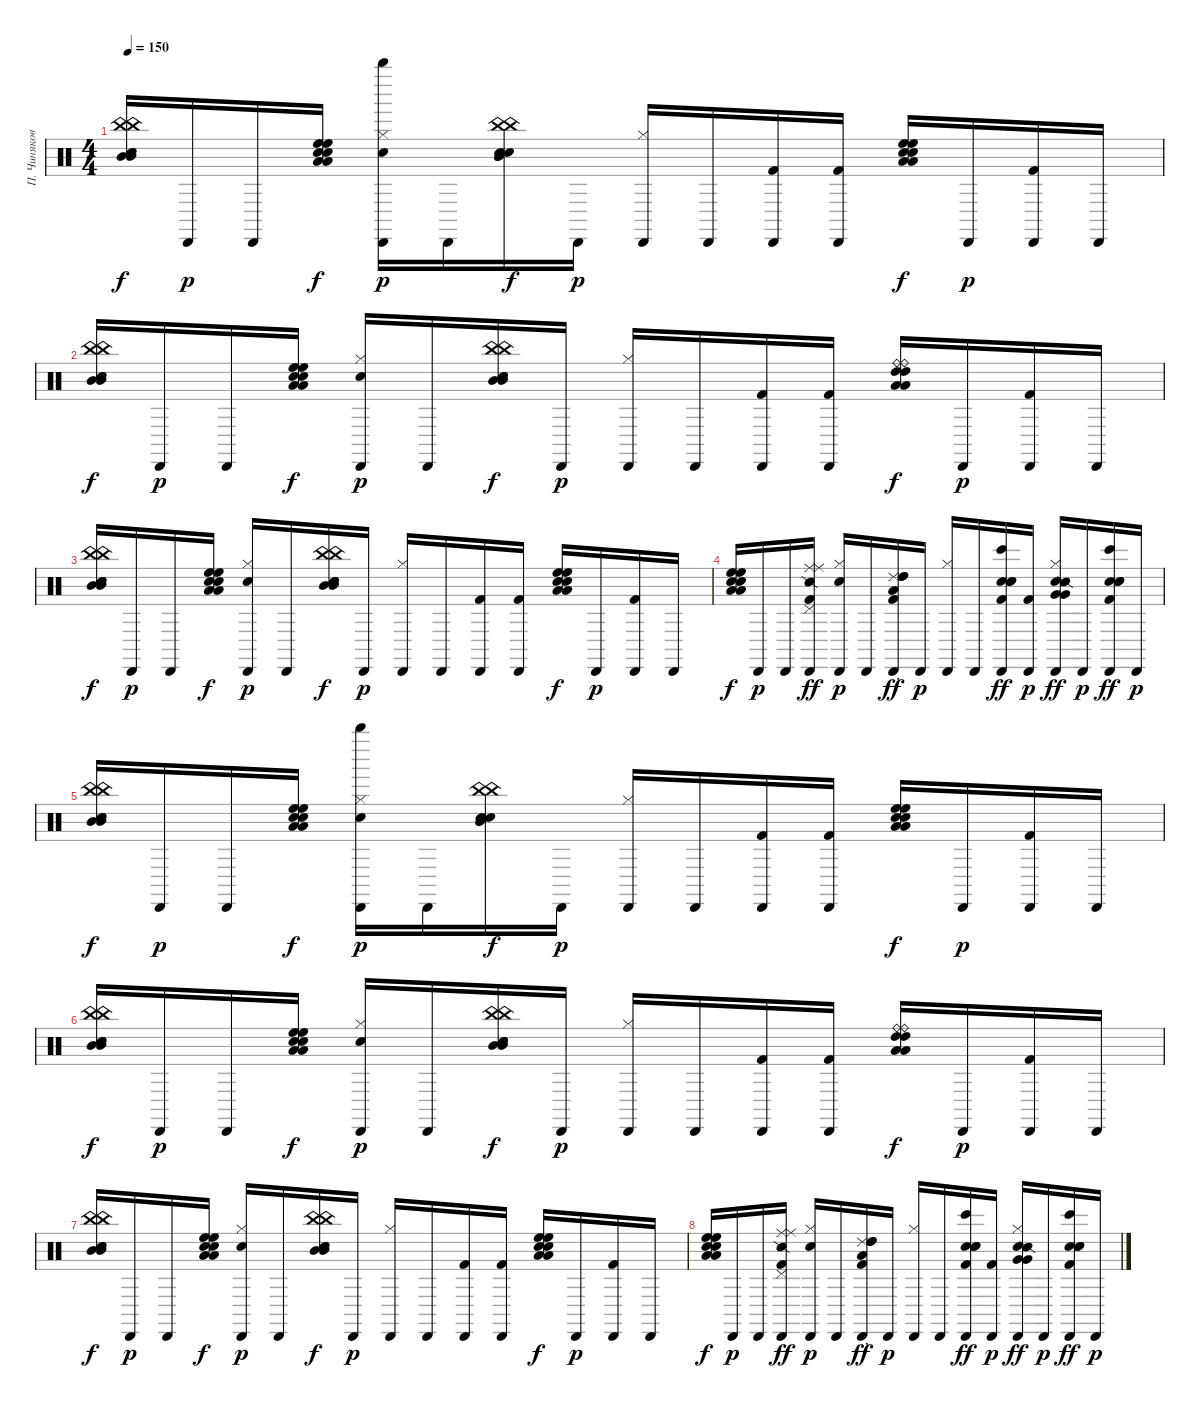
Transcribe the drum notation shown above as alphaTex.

\track ("П. Чиняков" "П. Чиняков") {instrument percussion}
\staff {score}
\articulation defaults
\ts (4 4)
\tempo 150
\clef neutral
\ks c
("China (hit)" "Mid Tom (hit)" "Electric Snare (hit)" "China (hit)" "Mid Tom (hit)" "Electric Snare (hit)").16{dy f} "Cabasa (hit)".16{dy p} "Cabasa (hit)".16 ("High Floor Tom (hit)" "Low Tom (hit)" "Snare (hit) 2" "High Floor Tom (hit)" "Low Tom (hit)" "Snare (hit) 2").16{dy f} ("Hi-Hat (closed)" "Cabasa (hit)" "Snare (hit) 2" "Whistle high (hit)").16{dy p} "Cabasa (hit)".16 ("China (hit)" "Mid Tom (hit)" "Electric Snare (hit)" "China (hit)" "Mid Tom (hit)" "Electric Snare (hit)").16{dy f} "Cabasa (hit)".16{dy p} ("Hi-Hat (closed)" "Cabasa (hit)").16 "Cabasa (hit)".16 ("Cabasa (hit)" "Kick (hit) 2").16 ("Cabasa (hit)" "Kick (hit) 2").16 ("High Floor Tom (hit)" "Low Tom (hit)" "Snare (hit) 2" "High Floor Tom (hit)" "Low Tom (hit)" "Snare (hit) 2").16{dy f} "Cabasa (hit)".16{dy p} ("Cabasa (hit)" "Kick (hit) 2").16 "Cabasa (hit)".16 |
("China (hit)" "Mid Tom (hit)" "Electric Snare (hit)" "China (hit)" "Mid Tom (hit)" "Electric Snare (hit)").16{dy f} "Cabasa (hit)".16{dy p} "Cabasa (hit)".16 ("High Floor Tom (hit)" "Low Tom (hit)" "Snare (hit) 2" "High Floor Tom (hit)" "Low Tom (hit)" "Snare (hit) 2").16{dy f} ("Hi-Hat (closed)" "Cabasa (hit)" "Snare (hit) 2").16{dy p} "Cabasa (hit)".16 ("China (hit)" "Mid Tom (hit)" "Electric Snare (hit)" "China (hit)" "Mid Tom (hit)" "Electric Snare (hit)").16{dy f} "Cabasa (hit)".16{dy p} ("Hi-Hat (closed)" "Cabasa (hit)").16 "Cabasa (hit)".16 ("Cabasa (hit)" "Kick (hit) 2").16 ("Cabasa (hit)" "Kick (hit) 2").16 ("Ride (bell)" "High Tom (hit)" "Low Floor Tom (hit)" "Ride (bell)" "High Tom (hit)" "Low Floor Tom (hit)").16{dy f} "Cabasa (hit)".16{dy p} ("Cabasa (hit)" "Kick (hit) 2").16 "Cabasa (hit)".16 |
("China (hit)" "Mid Tom (hit)" "Electric Snare (hit)" "China (hit)" "Mid Tom (hit)" "Electric Snare (hit)").16{dy f} "Cabasa (hit)".16{dy p} "Cabasa (hit)".16 ("High Floor Tom (hit)" "Low Tom (hit)" "Snare (hit) 2" "High Floor Tom (hit)" "Low Tom (hit)" "Snare (hit) 2").16{dy f} ("Hi-Hat (closed)" "Cabasa (hit)" "Snare (hit) 2").16{dy p} "Cabasa (hit)".16 ("China (hit)" "Mid Tom (hit)" "Electric Snare (hit)" "China (hit)" "Mid Tom (hit)" "Electric Snare (hit)").16{dy f} "Cabasa (hit)".16{dy p} ("Hi-Hat (closed)" "Cabasa (hit)").16 "Cabasa (hit)".16 ("Cabasa (hit)" "Kick (hit) 2").16 ("Cabasa (hit)" "Kick (hit) 2").16 ("High Floor Tom (hit)" "Low Tom (hit)" "Snare (hit) 2" "High Floor Tom (hit)" "Low Tom (hit)" "Snare (hit) 2").16{dy f} "Cabasa (hit)".16{dy p} ("Cabasa (hit)" "Kick (hit) 2").16 "Cabasa (hit)".16 |
("High Floor Tom (hit)" "Low Tom (hit)" "Snare (hit) 2" "High Floor Tom (hit)" "Low Tom (hit)" "Snare (hit) 2").16{dy f} "Cabasa (hit)".16{dy p} "Cabasa (hit)".16 ("Cabasa (hit)" "Kick (hit) 2" "Snare (side stick) 2" "Ride (middle)" "Pedal Hi-Hat (hit)" "Ride (middle)").16{dy ff} ("Hi-Hat (closed)" "Cabasa (hit)" "Snare (hit) 2").16{dy p} "Cabasa (hit)".16 ("Cabasa (hit)" "Kick (hit) 2" "Ride (choke) 2" "High Tom (hit)" "Low Floor Tom (hit)" "High Tom (hit)").16{dy ff} "Cabasa (hit)".16{dy p} ("Hi-Hat (closed)" "Cabasa (hit)").16 "Cabasa (hit)".16 ("Electric Snare (hit)" "Electric Snare (hit)" "Cabasa (hit)" "Kick (hit) 2" "Bongo High (hit)" "Electric Snare (hit)").16{dy ff} ("Cabasa (hit)" "Kick (hit) 2").16{dy p} ("Very Low Tom (hit)" "Very Low Tom (hit)" "Hi-Hat (closed)" "Cabasa (hit)" "Snare (hit) 2" "Snare (side stick) 2").16{dy ff} "Cabasa (hit)".16{dy p} ("Electric Snare (hit)" "Electric Snare (hit)" "Cabasa (hit)" "Kick (hit) 2" "Bongo High (hit)" "Electric Snare (hit)").16{dy ff} "Cabasa (hit)".16{dy p} |
("China (hit)" "Mid Tom (hit)" "Electric Snare (hit)" "China (hit)" "Mid Tom (hit)" "Electric Snare (hit)").16{dy f} "Cabasa (hit)".16{dy p} "Cabasa (hit)".16 ("High Floor Tom (hit)" "Low Tom (hit)" "Snare (hit) 2" "High Floor Tom (hit)" "Low Tom (hit)" "Snare (hit) 2").16{dy f} ("Hi-Hat (closed)" "Cabasa (hit)" "Snare (hit) 2" "Whistle high (hit)").16{dy p} "Cabasa (hit)".16 ("China (hit)" "Mid Tom (hit)" "Electric Snare (hit)" "China (hit)" "Mid Tom (hit)" "Electric Snare (hit)").16{dy f} "Cabasa (hit)".16{dy p} ("Hi-Hat (closed)" "Cabasa (hit)").16 "Cabasa (hit)".16 ("Cabasa (hit)" "Kick (hit) 2").16 ("Cabasa (hit)" "Kick (hit) 2").16 ("High Floor Tom (hit)" "Low Tom (hit)" "Snare (hit) 2" "High Floor Tom (hit)" "Low Tom (hit)" "Snare (hit) 2").16{dy f} "Cabasa (hit)".16{dy p} ("Cabasa (hit)" "Kick (hit) 2").16 "Cabasa (hit)".16 |
("China (hit)" "Mid Tom (hit)" "Electric Snare (hit)" "China (hit)" "Mid Tom (hit)" "Electric Snare (hit)").16{dy f} "Cabasa (hit)".16{dy p} "Cabasa (hit)".16 ("High Floor Tom (hit)" "Low Tom (hit)" "Snare (hit) 2" "High Floor Tom (hit)" "Low Tom (hit)" "Snare (hit) 2").16{dy f} ("Hi-Hat (closed)" "Cabasa (hit)" "Snare (hit) 2").16{dy p} "Cabasa (hit)".16 ("China (hit)" "Mid Tom (hit)" "Electric Snare (hit)" "China (hit)" "Mid Tom (hit)" "Electric Snare (hit)").16{dy f} "Cabasa (hit)".16{dy p} ("Hi-Hat (closed)" "Cabasa (hit)").16 "Cabasa (hit)".16 ("Cabasa (hit)" "Kick (hit) 2").16 ("Cabasa (hit)" "Kick (hit) 2").16 ("Ride (bell)" "High Tom (hit)" "Low Floor Tom (hit)" "Ride (bell)" "High Tom (hit)" "Low Floor Tom (hit)").16{dy f} "Cabasa (hit)".16{dy p} ("Cabasa (hit)" "Kick (hit) 2").16 "Cabasa (hit)".16 |
("China (hit)" "Mid Tom (hit)" "Electric Snare (hit)" "China (hit)" "Mid Tom (hit)" "Electric Snare (hit)").16{dy f} "Cabasa (hit)".16{dy p} "Cabasa (hit)".16 ("High Floor Tom (hit)" "Low Tom (hit)" "Snare (hit) 2" "High Floor Tom (hit)" "Low Tom (hit)" "Snare (hit) 2").16{dy f} ("Hi-Hat (closed)" "Cabasa (hit)" "Snare (hit) 2").16{dy p} "Cabasa (hit)".16 ("China (hit)" "Mid Tom (hit)" "Electric Snare (hit)" "China (hit)" "Mid Tom (hit)" "Electric Snare (hit)").16{dy f} "Cabasa (hit)".16{dy p} ("Hi-Hat (closed)" "Cabasa (hit)").16 "Cabasa (hit)".16 ("Cabasa (hit)" "Kick (hit) 2").16 ("Cabasa (hit)" "Kick (hit) 2").16 ("High Floor Tom (hit)" "Low Tom (hit)" "Snare (hit) 2" "High Floor Tom (hit)" "Low Tom (hit)" "Snare (hit) 2").16{dy f} "Cabasa (hit)".16{dy p} ("Cabasa (hit)" "Kick (hit) 2").16 "Cabasa (hit)".16 |
("High Floor Tom (hit)" "Low Tom (hit)" "Snare (hit) 2" "High Floor Tom (hit)" "Low Tom (hit)" "Snare (hit) 2").16{dy f} "Cabasa (hit)".16{dy p} "Cabasa (hit)".16 ("Cabasa (hit)" "Kick (hit) 2" "Snare (side stick) 2" "Ride (middle)" "Pedal Hi-Hat (hit)" "Ride (middle)").16{dy ff} ("Hi-Hat (closed)" "Cabasa (hit)" "Snare (hit) 2").16{dy p} "Cabasa (hit)".16 ("Cabasa (hit)" "Kick (hit) 2" "Ride (choke) 2" "High Tom (hit)" "Low Floor Tom (hit)" "High Tom (hit)").16{dy ff} "Cabasa (hit)".16{dy p} ("Hi-Hat (closed)" "Cabasa (hit)").16 "Cabasa (hit)".16 ("Electric Snare (hit)" "Electric Snare (hit)" "Cabasa (hit)" "Kick (hit) 2" "Bongo High (hit)" "Electric Snare (hit)").16{dy ff} ("Cabasa (hit)" "Kick (hit) 2").16{dy p} ("Very Low Tom (hit)" "Very Low Tom (hit)" "Hi-Hat (closed)" "Cabasa (hit)" "Snare (hit) 2" "Snare (side stick) 2").16{dy ff} "Cabasa (hit)".16{dy p} ("Electric Snare (hit)" "Electric Snare (hit)" "Cabasa (hit)" "Kick (hit) 2" "Bongo High (hit)" "Electric Snare (hit)").16{dy ff} "Cabasa (hit)".16{dy p}
